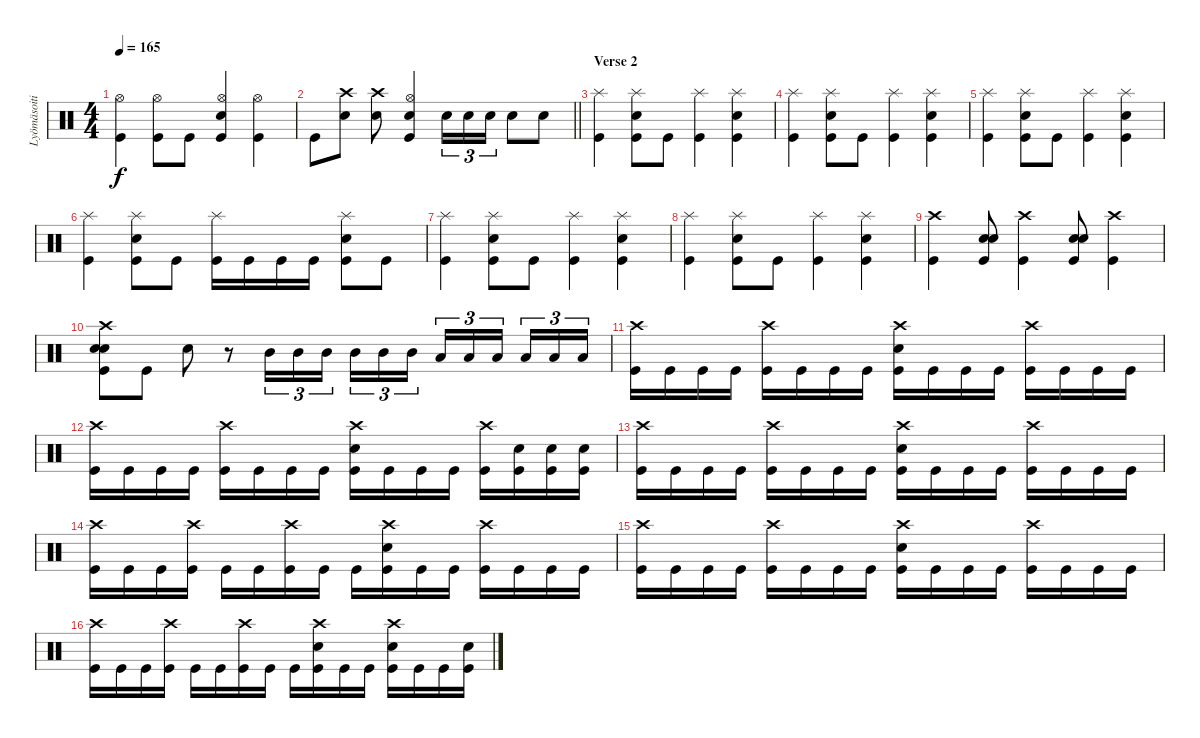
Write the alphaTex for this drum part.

\track ("Lyömäsoitin" "Lyömäsoiti") {instrument percussion}
\staff {score}
\articulation defaults
\ts (4 4)
\tempo 165
\clef neutral
\ks c
("Kick (hit)" "Hi-Hat (open)").4{dy f} ("Hi-Hat (open)" "Kick (hit)").8 "Kick (hit)".8 ("Electric Snare (hit)" "Hi-Hat (open)" "Kick (hit)").4 ("Kick (hit)" "Hi-Hat (open)").4 |
\barLineRight lightlight "Kick (hit)".8
("Electric Snare (hit)" "Crash high (hit)").8 ("Electric Snare (hit)" "Crash high (hit)").8 ("Electric Snare (hit)" "Kick (hit)" "Hi-Hat (open)").4 "Electric Snare (hit)".16{tu (3 2)} "Electric Snare (hit)".16{tu (3 2)} "Electric Snare (hit)".16{tu (3 2)} "Electric Snare (hit)".8 "Electric Snare (hit)".8 |
\section ("" "Verse 2")
("Kick (hit)" "Splash (hit)").4 ("Kick (hit)" "Splash (hit)" "Electric Snare (hit)").8 "Kick (hit)".8 ("Kick (hit)" "Splash (hit)").4 ("Kick (hit)" "Splash (hit)" "Electric Snare (hit)").4 |
("Kick (hit)" "Splash (hit)").4 ("Kick (hit)" "Splash (hit)" "Electric Snare (hit)").8 "Kick (hit)".8 ("Kick (hit)" "Splash (hit)").4 ("Kick (hit)" "Splash (hit)" "Electric Snare (hit)").4 |
("Kick (hit)" "Splash (hit)").4 ("Kick (hit)" "Splash (hit)" "Electric Snare (hit)").8 "Kick (hit)".8 ("Kick (hit)" "Splash (hit)").4 ("Kick (hit)" "Splash (hit)" "Electric Snare (hit)").4 |
("Kick (hit)" "Splash (hit)").4 ("Kick (hit)" "Splash (hit)" "Electric Snare (hit)").8 "Kick (hit)".8 ("Kick (hit)" "Splash (hit)").16 "Kick (hit)".16 "Kick (hit)".16 "Kick (hit)".16 ("Kick (hit)" "Splash (hit)" "Electric Snare (hit)").8 "Kick (hit)".8 |
("Kick (hit)" "Splash (hit)").4 ("Kick (hit)" "Splash (hit)" "Electric Snare (hit)").8 "Kick (hit)".8 ("Kick (hit)" "Splash (hit)").4 ("Kick (hit)" "Splash (hit)" "Electric Snare (hit)").4 |
("Kick (hit)" "Splash (hit)").4 ("Kick (hit)" "Splash (hit)" "Electric Snare (hit)").8 "Kick (hit)".8 ("Kick (hit)" "Splash (hit)").4 ("Kick (hit)" "Splash (hit)" "Electric Snare (hit)").4 |
("Kick (hit)" "Crash high (hit)").4 ("Kick (hit)" "Electric Snare (hit)" "Electric Snare (hit)").8 ("Kick (hit)" "Crash high (hit)").4 ("Kick (hit)" "Electric Snare (hit)" "Electric Snare (hit)").8 ("Kick (hit)" "Crash high (hit)").4 |
("Kick (hit)" "Crash high (hit)" "Electric Snare (hit)" "Electric Snare (hit)").8 "Kick (hit)".8 "Electric Snare (hit)".8 r.8 "Mid Tom (hit)".16{tu (3 2)} "Mid Tom (hit)".16{tu (3 2)} "Mid Tom (hit)".16{tu (3 2) beam splitsecondary} "Mid Tom (hit)".16{tu (3 2)} "Mid Tom (hit)".16{tu (3 2)} "Mid Tom (hit)".16{tu (3 2)} "Low Tom (hit)".16{tu (3 2)} "Low Tom (hit)".16{tu (3 2)} "Low Tom (hit)".16{tu (3 2) beam splitsecondary} "Low Tom (hit)".16{tu (3 2)} "Low Tom (hit)".16{tu (3 2)} "Low Tom (hit)".16{tu (3 2)} |
("Kick (hit)" "Crash high (hit)").16 "Kick (hit)".16 "Kick (hit)".16 "Kick (hit)".16 ("Kick (hit)" "Crash high (hit)").16 "Kick (hit)".16 "Kick (hit)".16 "Kick (hit)".16 ("Kick (hit)" "Crash high (hit)" "Electric Snare (hit)").16 "Kick (hit)".16 "Kick (hit)".16 "Kick (hit)".16 ("Kick (hit)" "Crash high (hit)").16 "Kick (hit)".16 "Kick (hit)".16 "Kick (hit)".16 |
("Kick (hit)" "Crash high (hit)").16 "Kick (hit)".16 "Kick (hit)".16 "Kick (hit)".16 ("Kick (hit)" "Crash high (hit)").16 "Kick (hit)".16 "Kick (hit)".16 "Kick (hit)".16 ("Kick (hit)" "Crash high (hit)" "Electric Snare (hit)").16 "Kick (hit)".16 "Kick (hit)".16 "Kick (hit)".16 ("Kick (hit)" "Crash high (hit)").16 ("Kick (hit)" "Electric Snare (hit)").16 ("Kick (hit)" "Electric Snare (hit)").16 ("Kick (hit)" "Electric Snare (hit)").16 |
("Kick (hit)" "Crash high (hit)").16 "Kick (hit)".16 "Kick (hit)".16 "Kick (hit)".16 ("Kick (hit)" "Crash high (hit)").16 "Kick (hit)".16 "Kick (hit)".16 "Kick (hit)".16 ("Kick (hit)" "Crash high (hit)" "Electric Snare (hit)").16 "Kick (hit)".16 "Kick (hit)".16 "Kick (hit)".16 ("Kick (hit)" "Crash high (hit)").16 "Kick (hit)".16 "Kick (hit)".16 "Kick (hit)".16 |
("Kick (hit)" "Crash high (hit)").16 "Kick (hit)".16 "Kick (hit)".16 ("Kick (hit)" "Crash high (hit)").16 "Kick (hit)".16 "Kick (hit)".16 ("Kick (hit)" "Crash high (hit)").16 "Kick (hit)".16 "Kick (hit)".16 ("Crash high (hit)" "Kick (hit)" "Electric Snare (hit)").16 "Kick (hit)".16 "Kick (hit)".16 ("Kick (hit)" "Crash high (hit)").16 "Kick (hit)".16 "Kick (hit)".16 "Kick (hit)".16 |
("Kick (hit)" "Crash high (hit)").16 "Kick (hit)".16 "Kick (hit)".16 "Kick (hit)".16 ("Kick (hit)" "Crash high (hit)").16 "Kick (hit)".16 "Kick (hit)".16 "Kick (hit)".16 ("Kick (hit)" "Crash high (hit)" "Electric Snare (hit)").16 "Kick (hit)".16 "Kick (hit)".16 "Kick (hit)".16 ("Kick (hit)" "Crash high (hit)").16 "Kick (hit)".16 "Kick (hit)".16 "Kick (hit)".16 |
("Kick (hit)" "Crash high (hit)").16 "Kick (hit)".16 "Kick (hit)".16 ("Kick (hit)" "Crash high (hit)").16 "Kick (hit)".16 "Kick (hit)".16 ("Kick (hit)" "Crash high (hit)").16 "Kick (hit)".16 "Kick (hit)".16 ("Crash high (hit)" "Kick (hit)" "Electric Snare (hit)").16 "Kick (hit)".16 "Kick (hit)".16 ("Kick (hit)" "Crash high (hit)" "Electric Snare (hit)").16 "Kick (hit)".16 "Kick (hit)".16 ("Kick (hit)" "Electric Snare (hit)").16
